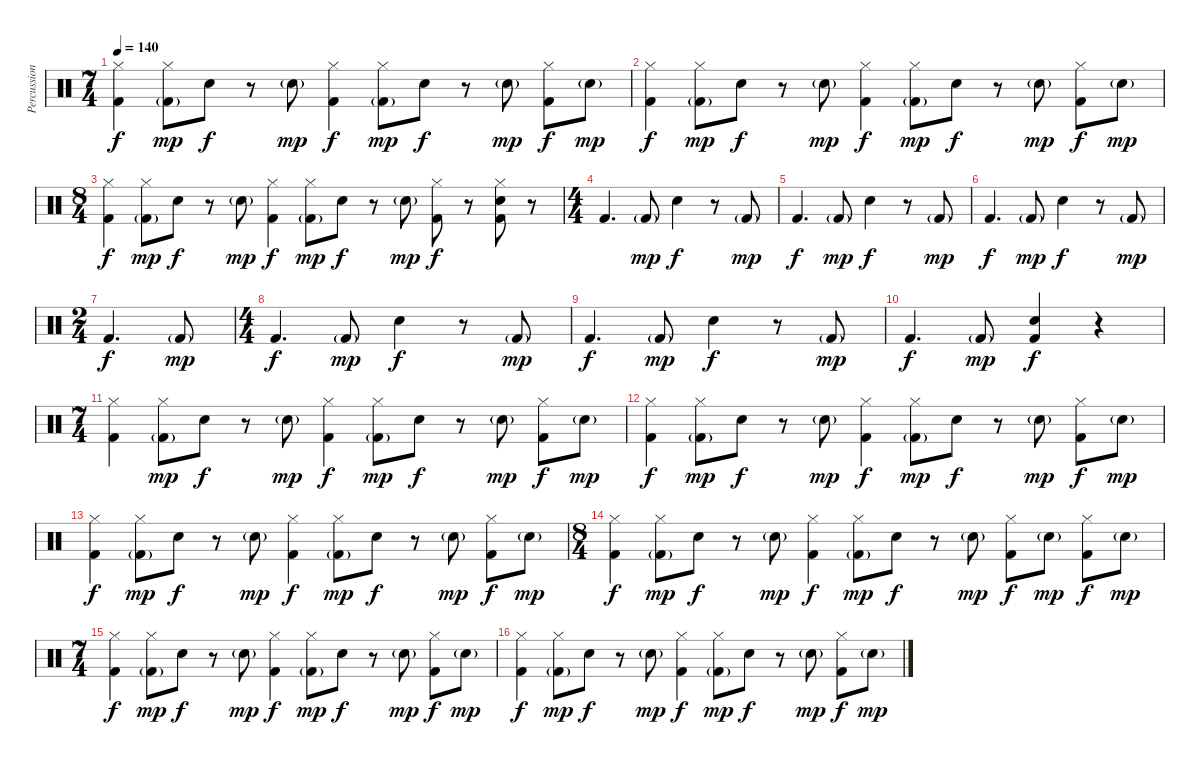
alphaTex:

\track ("Percussion" "Percussion") {instrument percussion}
\staff {score}
\articulation defaults
\ts (7 4)
\tempo 140
\clef neutral
\ks c
("Hi-Hat (closed)" "Kick (hit) 2").4{dy f} ("Hi-Hat (closed)" "Kick (hit) 2"{g}).8{dy mp} "Snare (hit) 2".8{dy f} r.8 "Snare (hit) 2"{g}.8{dy mp} ("Hi-Hat (closed)" "Kick (hit) 2").4{dy f} ("Hi-Hat (closed)" "Kick (hit) 2"{g}).8{dy mp} "Snare (hit) 2".8{dy f} r.8 "Snare (hit) 2"{g}.8{dy mp} ("Hi-Hat (closed)" "Kick (hit) 2").8{dy f} "Snare (hit) 2"{g}.8{dy mp} |
("Hi-Hat (closed)" "Kick (hit) 2").4{dy f} ("Hi-Hat (closed)" "Kick (hit) 2"{g}).8{dy mp} "Snare (hit) 2".8{dy f} r.8 "Snare (hit) 2"{g}.8{dy mp} ("Hi-Hat (closed)" "Kick (hit) 2").4{dy f} ("Hi-Hat (closed)" "Kick (hit) 2"{g}).8{dy mp} "Snare (hit) 2".8{dy f} r.8 "Snare (hit) 2"{g}.8{dy mp} ("Hi-Hat (closed)" "Kick (hit) 2").8{dy f} "Snare (hit) 2"{g}.8{dy mp} |
\ts (8 4)
("Hi-Hat (closed)" "Kick (hit) 2").4{dy f} ("Hi-Hat (closed)" "Kick (hit) 2"{g}).8{dy mp} "Snare (hit) 2".8{dy f} r.8 "Snare (hit) 2"{g}.8{dy mp} ("Hi-Hat (closed)" "Kick (hit) 2").4{dy f} ("Hi-Hat (closed)" "Kick (hit) 2"{g}).8{dy mp} "Snare (hit) 2".8{dy f} r.8 "Snare (hit) 2"{g}.8{dy mp} ("Hi-Hat (closed)" "Kick (hit) 2").8{dy f} r.8 ("Hi-Hat (closed)" "Snare (hit) 2" "Kick (hit) 2").8 r.8 |
\ts (4 4)
"Kick (hit) 2".4{d} "Kick (hit) 2"{g}.8{dy mp} "Snare (hit) 2".4{dy f} r.8 "Kick (hit) 2"{g}.8{dy mp} |
"Kick (hit) 2".4{d dy f} "Kick (hit) 2"{g}.8{dy mp} "Snare (hit) 2".4{dy f} r.8 "Kick (hit) 2"{g}.8{dy mp} |
"Kick (hit) 2".4{d dy f} "Kick (hit) 2"{g}.8{dy mp} "Snare (hit) 2".4{dy f} r.8 "Kick (hit) 2"{g}.8{dy mp} |
\ts (2 4)
"Kick (hit) 2".4{d dy f} "Kick (hit) 2"{g}.8{dy mp} |
\ts (4 4)
"Kick (hit) 2".4{d dy f} "Kick (hit) 2"{g}.8{dy mp} "Snare (hit) 2".4{dy f} r.8 "Kick (hit) 2"{g}.8{dy mp} |
"Kick (hit) 2".4{d dy f} "Kick (hit) 2"{g}.8{dy mp} "Snare (hit) 2".4{dy f} r.8 "Kick (hit) 2"{g}.8{dy mp} |
"Kick (hit) 2".4{d dy f} "Kick (hit) 2"{g}.8{dy mp} ("Snare (hit) 2" "Kick (hit) 2").4{dy f} r.4 |
\ts (7 4)
("Hi-Hat (closed)" "Kick (hit) 2").4 ("Hi-Hat (closed)" "Kick (hit) 2"{g}).8{dy mp} "Snare (hit) 2".8{dy f} r.8 "Snare (hit) 2"{g}.8{dy mp} ("Hi-Hat (closed)" "Kick (hit) 2").4{dy f} ("Hi-Hat (closed)" "Kick (hit) 2"{g}).8{dy mp} "Snare (hit) 2".8{dy f} r.8 "Snare (hit) 2"{g}.8{dy mp} ("Hi-Hat (closed)" "Kick (hit) 2").8{dy f} "Snare (hit) 2"{g}.8{dy mp} |
("Hi-Hat (closed)" "Kick (hit) 2").4{dy f} ("Hi-Hat (closed)" "Kick (hit) 2"{g}).8{dy mp} "Snare (hit) 2".8{dy f} r.8 "Snare (hit) 2"{g}.8{dy mp} ("Hi-Hat (closed)" "Kick (hit) 2").4{dy f} ("Hi-Hat (closed)" "Kick (hit) 2"{g}).8{dy mp} "Snare (hit) 2".8{dy f} r.8 "Snare (hit) 2"{g}.8{dy mp} ("Hi-Hat (closed)" "Kick (hit) 2").8{dy f} "Snare (hit) 2"{g}.8{dy mp} |
("Hi-Hat (closed)" "Kick (hit) 2").4{dy f} ("Hi-Hat (closed)" "Kick (hit) 2"{g}).8{dy mp} "Snare (hit) 2".8{dy f} r.8 "Snare (hit) 2"{g}.8{dy mp} ("Hi-Hat (closed)" "Kick (hit) 2").4{dy f} ("Hi-Hat (closed)" "Kick (hit) 2"{g}).8{dy mp} "Snare (hit) 2".8{dy f} r.8 "Snare (hit) 2"{g}.8{dy mp} ("Hi-Hat (closed)" "Kick (hit) 2").8{dy f} "Snare (hit) 2"{g}.8{dy mp} |
\ts (8 4)
("Hi-Hat (closed)" "Kick (hit) 2").4{dy f} ("Hi-Hat (closed)" "Kick (hit) 2"{g}).8{dy mp} "Snare (hit) 2".8{dy f} r.8 "Snare (hit) 2"{g}.8{dy mp} ("Hi-Hat (closed)" "Kick (hit) 2").4{dy f} ("Hi-Hat (closed)" "Kick (hit) 2"{g}).8{dy mp} "Snare (hit) 2".8{dy f} r.8 "Snare (hit) 2"{g}.8{dy mp} ("Hi-Hat (closed)" "Kick (hit) 2").8{dy f} "Snare (hit) 2"{g}.8{dy mp} ("Hi-Hat (closed)" "Kick (hit) 2").8{dy f} "Snare (hit) 2"{g}.8{dy mp} |
\ts (7 4)
("Hi-Hat (closed)" "Kick (hit) 2").4{dy f} ("Hi-Hat (closed)" "Kick (hit) 2"{g}).8{dy mp} "Snare (hit) 2".8{dy f} r.8 "Snare (hit) 2"{g}.8{dy mp} ("Hi-Hat (closed)" "Kick (hit) 2").4{dy f} ("Hi-Hat (closed)" "Kick (hit) 2"{g}).8{dy mp} "Snare (hit) 2".8{dy f} r.8 "Snare (hit) 2"{g}.8{dy mp} ("Hi-Hat (closed)" "Kick (hit) 2").8{dy f} "Snare (hit) 2"{g}.8{dy mp} |
("Hi-Hat (closed)" "Kick (hit) 2").4{dy f} ("Hi-Hat (closed)" "Kick (hit) 2"{g}).8{dy mp} "Snare (hit) 2".8{dy f} r.8 "Snare (hit) 2"{g}.8{dy mp} ("Hi-Hat (closed)" "Kick (hit) 2").4{dy f} ("Hi-Hat (closed)" "Kick (hit) 2"{g}).8{dy mp} "Snare (hit) 2".8{dy f} r.8 "Snare (hit) 2"{g}.8{dy mp} ("Hi-Hat (closed)" "Kick (hit) 2").8{dy f} "Snare (hit) 2"{g}.8{dy mp}
